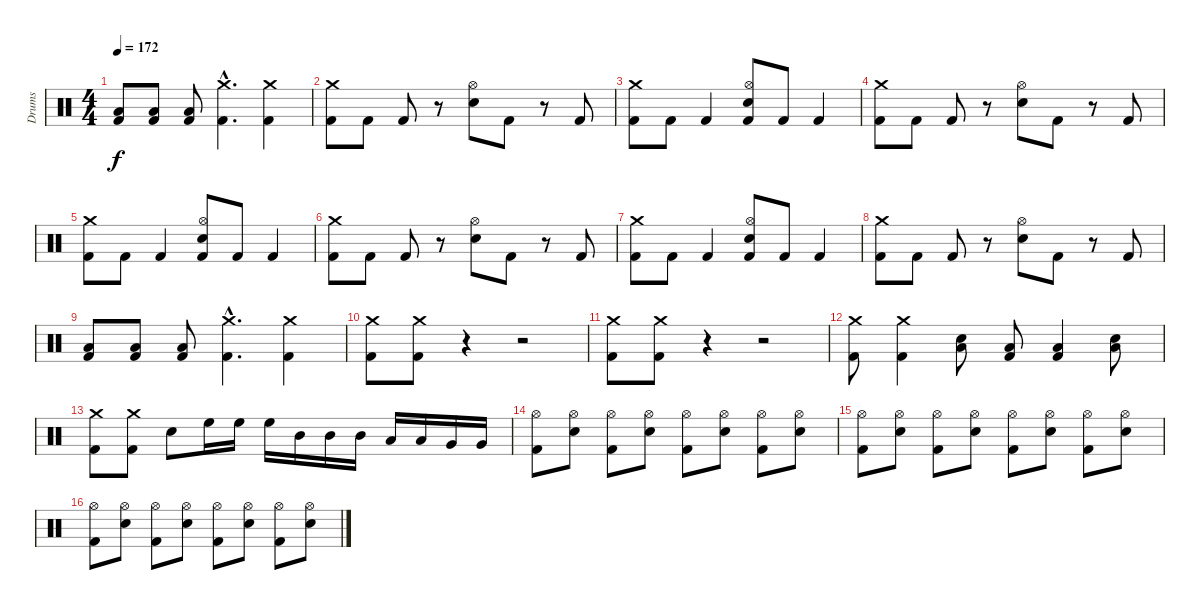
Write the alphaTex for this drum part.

\track ("Drums" "Drums") {instrument percussion}
\staff {score}
\articulation defaults
\ts (4 4)
\tempo 172
\clef neutral
\ks c
("Low Tom (hit)" "Kick (hit) 2").8{dy f} ("Low Tom (hit)" "Kick (hit) 2").8 ("Low Tom (hit)" "Kick (hit) 2").8 ("Crash medium (hit)"{hac} "Kick (hit) 2"{hac}).4{d} ("Crash medium (hit)" "Kick (hit) 2").4 |
("Crash medium (hit)" "Kick (hit) 2").8 "Kick (hit) 2".8 "Kick (hit) 2".8 r.8 ("Hi-Hat (open)" "Snare (hit) 2").8 "Kick (hit) 2".8 r.8 "Kick (hit) 2".8 |
("Crash medium (hit)" "Kick (hit) 2").8 "Kick (hit) 2".8 "Kick (hit) 2".4 ("Hi-Hat (open)" "Snare (hit) 2" "Kick (hit) 2").8 "Kick (hit) 2".8 "Kick (hit) 2".4 |
("Crash medium (hit)" "Kick (hit) 2").8 "Kick (hit) 2".8 "Kick (hit) 2".8 r.8 ("Hi-Hat (open)" "Snare (hit) 2").8 "Kick (hit) 2".8 r.8 "Kick (hit) 2".8 |
("Crash medium (hit)" "Kick (hit) 2").8 "Kick (hit) 2".8 "Kick (hit) 2".4 ("Hi-Hat (open)" "Snare (hit) 2" "Kick (hit) 2").8 "Kick (hit) 2".8 "Kick (hit) 2".4 |
("Crash medium (hit)" "Kick (hit) 2").8 "Kick (hit) 2".8 "Kick (hit) 2".8 r.8 ("Hi-Hat (open)" "Snare (hit) 2").8 "Kick (hit) 2".8 r.8 "Kick (hit) 2".8 |
("Crash medium (hit)" "Kick (hit) 2").8 "Kick (hit) 2".8 "Kick (hit) 2".4 ("Hi-Hat (open)" "Snare (hit) 2" "Kick (hit) 2").8 "Kick (hit) 2".8 "Kick (hit) 2".4 |
("Crash medium (hit)" "Kick (hit) 2").8 "Kick (hit) 2".8 "Kick (hit) 2".8 r.8 ("Hi-Hat (open)" "Snare (hit) 2").8 "Kick (hit) 2".8 r.8 "Kick (hit) 2".8 |
("Low Tom (hit)" "Kick (hit) 2").8 ("Low Tom (hit)" "Kick (hit) 2").8 ("Low Tom (hit)" "Kick (hit) 2").8 ("Crash medium (hit)"{hac} "Kick (hit) 2"{hac}).4{d} ("Crash medium (hit)" "Kick (hit) 2").4 |
("Crash medium (hit)" "Kick (hit) 2").8 ("Crash medium (hit)" "Kick (hit) 2").8 r.4 r.2 |
("Crash medium (hit)" "Kick (hit) 2").8 ("Crash medium (hit)" "Kick (hit) 2").8 r.4 r.2 |
("Crash medium (hit)" "Kick (hit) 2").8 ("Crash medium (hit)" "Kick (hit) 2").4 ("Low Tom (hit)" "Snare (hit) 2").8 ("Low Tom (hit)" "Kick (hit) 2").8 ("Low Tom (hit)" "Kick (hit) 2").4 ("Low Tom (hit)" "Snare (hit) 2").8 |
("Crash medium (hit)" "Kick (hit) 2").8 ("Crash medium (hit)" "Kick (hit) 2").8 "Snare (hit) 2".8 "High Floor Tom (hit)".16 "High Floor Tom (hit)".16 "High Floor Tom (hit)".16 "Mid Tom (hit)".16 "Mid Tom (hit)".16 "Mid Tom (hit)".16 "Low Tom (hit)".16 "Low Tom (hit)".16 "Very Low Tom (hit)".16 "Very Low Tom (hit)".16 |
("Hi-Hat (open)" "Kick (hit) 2").8 ("Hi-Hat (open)" "Snare (hit) 2").8 ("Hi-Hat (open)" "Kick (hit) 2").8 ("Hi-Hat (open)" "Snare (hit) 2").8 ("Hi-Hat (open)" "Kick (hit) 2").8 ("Hi-Hat (open)" "Snare (hit) 2").8 ("Hi-Hat (open)" "Kick (hit) 2").8 ("Hi-Hat (open)" "Snare (hit) 2").8 |
("Hi-Hat (open)" "Kick (hit) 2").8 ("Hi-Hat (open)" "Snare (hit) 2").8 ("Hi-Hat (open)" "Kick (hit) 2").8 ("Hi-Hat (open)" "Snare (hit) 2").8 ("Hi-Hat (open)" "Kick (hit) 2").8 ("Hi-Hat (open)" "Snare (hit) 2").8 ("Hi-Hat (open)" "Kick (hit) 2").8 ("Hi-Hat (open)" "Snare (hit) 2").8 |
("Hi-Hat (open)" "Kick (hit) 2").8 ("Hi-Hat (open)" "Snare (hit) 2").8 ("Hi-Hat (open)" "Kick (hit) 2").8 ("Hi-Hat (open)" "Snare (hit) 2").8 ("Hi-Hat (open)" "Kick (hit) 2").8 ("Hi-Hat (open)" "Snare (hit) 2").8 ("Hi-Hat (open)" "Kick (hit) 2").8 ("Hi-Hat (open)" "Snare (hit) 2").8
